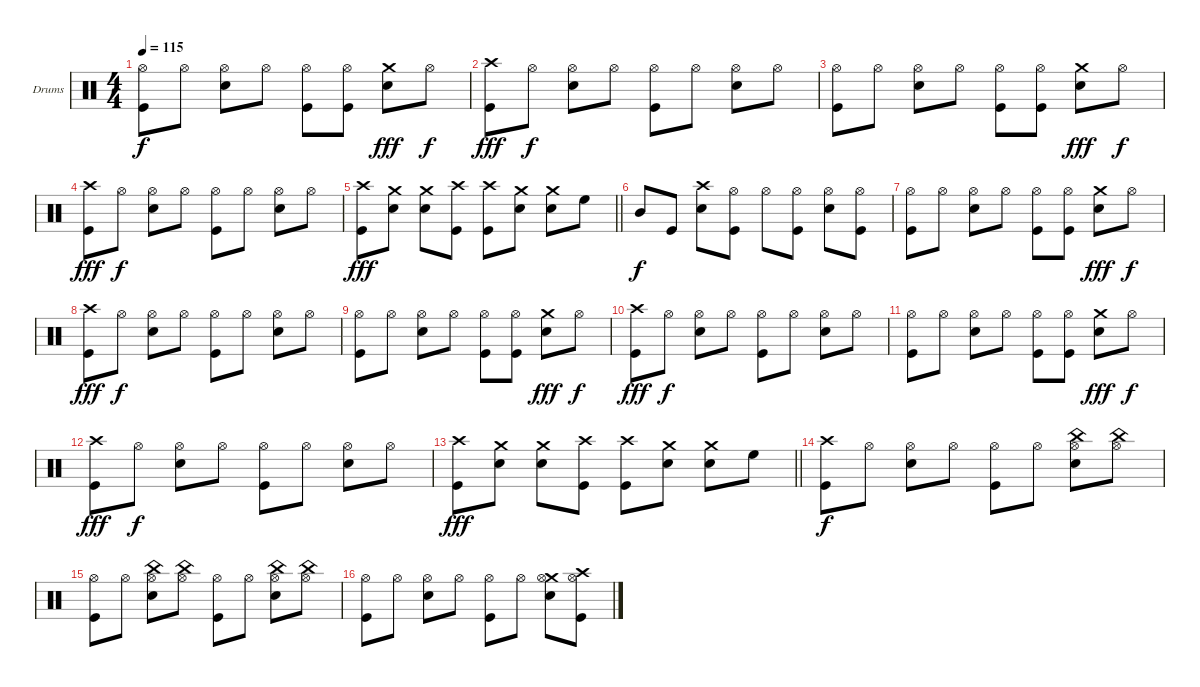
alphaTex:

\bracketExtendMode groupsimilarinstruments
\firstSystemTrackNameOrientation horizontal
\otherSystemsTrackNameOrientation horizontal
\track ("Drumkit" "Drums") {instrument percussion}
\staff {score}
\articulation defaults
\ts (4 4)
\tempo 115
\clef neutral
\ks c
("Hi-Hat (open)" "Kick (hit)").8{dy f} "Hi-Hat (open)".8 ("Hi-Hat (open)" "Snare (hit) 2").8 "Hi-Hat (open)".8 ("Hi-Hat (open)" "Kick (hit)").8 ("Hi-Hat (open)" "Kick (hit)").8 ("Crash medium (hit)" "Snare (hit) 2").8{dy fff} "Hi-Hat (open)".8{dy f} |
("Crash high (hit)" "Kick (hit)").8{dy fff} "Hi-Hat (open)".8{dy f} ("Hi-Hat (open)" "Snare (hit) 2").8 "Hi-Hat (open)".8 ("Hi-Hat (open)" "Kick (hit)").8 "Hi-Hat (open)".8 ("Hi-Hat (open)" "Snare (hit) 2").8 "Hi-Hat (open)".8 |
("Hi-Hat (open)" "Kick (hit)").8 "Hi-Hat (open)".8 ("Hi-Hat (open)" "Snare (hit) 2").8 "Hi-Hat (open)".8 ("Hi-Hat (open)" "Kick (hit)").8 ("Hi-Hat (open)" "Kick (hit)").8 ("Crash medium (hit)" "Snare (hit) 2").8{dy fff} "Hi-Hat (open)".8{dy f} |
("Crash high (hit)" "Kick (hit)").8{dy fff} "Hi-Hat (open)".8{dy f} ("Hi-Hat (open)" "Snare (hit) 2").8 "Hi-Hat (open)".8 ("Hi-Hat (open)" "Kick (hit)").8 "Hi-Hat (open)".8 ("Hi-Hat (open)" "Snare (hit) 2").8 "Hi-Hat (open)".8 |
\barLineRight lightlight
("Crash high (hit)" "Kick (hit)").8{dy fff} ("Crash medium (hit)" "Snare (hit) 2").8 ("Crash medium (hit)" "Snare (hit) 2").8 ("Crash high (hit)" "Kick (hit)").8 ("Crash high (hit)" "Kick (hit)").8 ("Crash medium (hit)" "Snare (hit) 2").8 ("Crash medium (hit)" "Snare (hit) 2").8 "High Floor Tom (hit)".8 |
"Mid Tom (hit)".8{dy f} "Kick (hit)".8 ("Crash high (hit)" "Snare (hit) 2").8 ("Hi-Hat (open)" "Kick (hit)").8 "Hi-Hat (open)".8 ("Hi-Hat (open)" "Kick (hit)").8 ("Hi-Hat (open)" "Snare (hit) 2").8 ("Hi-Hat (open)" "Kick (hit)").8 |
("Hi-Hat (open)" "Kick (hit)").8 "Hi-Hat (open)".8 ("Hi-Hat (open)" "Snare (hit) 2").8 "Hi-Hat (open)".8 ("Hi-Hat (open)" "Kick (hit)").8 ("Hi-Hat (open)" "Kick (hit)").8 ("Crash medium (hit)" "Snare (hit) 2").8{dy fff} "Hi-Hat (open)".8{dy f} |
("Crash high (hit)" "Kick (hit)").8{dy fff} "Hi-Hat (open)".8{dy f} ("Hi-Hat (open)" "Snare (hit) 2").8 "Hi-Hat (open)".8 ("Hi-Hat (open)" "Kick (hit)").8 "Hi-Hat (open)".8 ("Hi-Hat (open)" "Snare (hit) 2").8 "Hi-Hat (open)".8 |
("Hi-Hat (open)" "Kick (hit)").8 "Hi-Hat (open)".8 ("Hi-Hat (open)" "Snare (hit) 2").8 "Hi-Hat (open)".8 ("Hi-Hat (open)" "Kick (hit)").8 ("Hi-Hat (open)" "Kick (hit)").8 ("Crash medium (hit)" "Snare (hit) 2").8{dy fff} "Hi-Hat (open)".8{dy f} |
("Crash high (hit)" "Kick (hit)").8{dy fff} "Hi-Hat (open)".8{dy f} ("Hi-Hat (open)" "Snare (hit) 2").8 "Hi-Hat (open)".8 ("Hi-Hat (open)" "Kick (hit)").8 "Hi-Hat (open)".8 ("Hi-Hat (open)" "Snare (hit) 2").8 "Hi-Hat (open)".8 |
("Hi-Hat (open)" "Kick (hit)").8 "Hi-Hat (open)".8 ("Hi-Hat (open)" "Snare (hit) 2").8 "Hi-Hat (open)".8 ("Hi-Hat (open)" "Kick (hit)").8 ("Hi-Hat (open)" "Kick (hit)").8 ("Crash medium (hit)" "Snare (hit) 2").8{dy fff} "Hi-Hat (open)".8{dy f} |
("Crash high (hit)" "Kick (hit)").8{dy fff} "Hi-Hat (open)".8{dy f} ("Hi-Hat (open)" "Snare (hit) 2").8 "Hi-Hat (open)".8 ("Hi-Hat (open)" "Kick (hit)").8 "Hi-Hat (open)".8 ("Hi-Hat (open)" "Snare (hit) 2").8 "Hi-Hat (open)".8 |
\barLineRight lightlight
("Crash high (hit)" "Kick (hit)").8{dy fff} ("Crash medium (hit)" "Snare (hit) 2").8 ("Crash medium (hit)" "Snare (hit) 2").8 ("Crash high (hit)" "Kick (hit)").8 ("Crash high (hit)" "Kick (hit)").8 ("Crash medium (hit)" "Snare (hit) 2").8 ("Crash medium (hit)" "Snare (hit) 2").8 "High Floor Tom (hit)".8 |
("Crash high (hit)" "Kick (hit)").8{dy f} "Hi-Hat (open)".8 ("Hi-Hat (open)" "Snare (hit) 2").8 "Hi-Hat (open)".8 ("Hi-Hat (open)" "Kick (hit)").8 "Hi-Hat (open)".8 ("Hi-Hat (open)" "Snare (hit) 2" "China (hit)").8 ("Hi-Hat (open)" "China (hit)").8 |
("Hi-Hat (open)" "Kick (hit)").8 "Hi-Hat (open)".8 ("Hi-Hat (open)" "Snare (hit) 2" "China (hit)").8 ("Hi-Hat (open)" "China (hit)").8 ("Hi-Hat (open)" "Kick (hit)").8 "Hi-Hat (open)".8 ("Hi-Hat (open)" "Snare (hit) 2" "China (hit)").8 ("Hi-Hat (open)" "China (hit)").8 |
("Hi-Hat (open)" "Kick (hit)").8 "Hi-Hat (open)".8 ("Hi-Hat (open)" "Snare (hit) 2").8 "Hi-Hat (open)".8 ("Hi-Hat (open)" "Kick (hit)").8 "Hi-Hat (open)".8 ("Crash medium (hit)" "Hi-Hat (open)" "Snare (hit) 2").8 ("Crash high (hit)" "Hi-Hat (open)" "Kick (hit)").8
